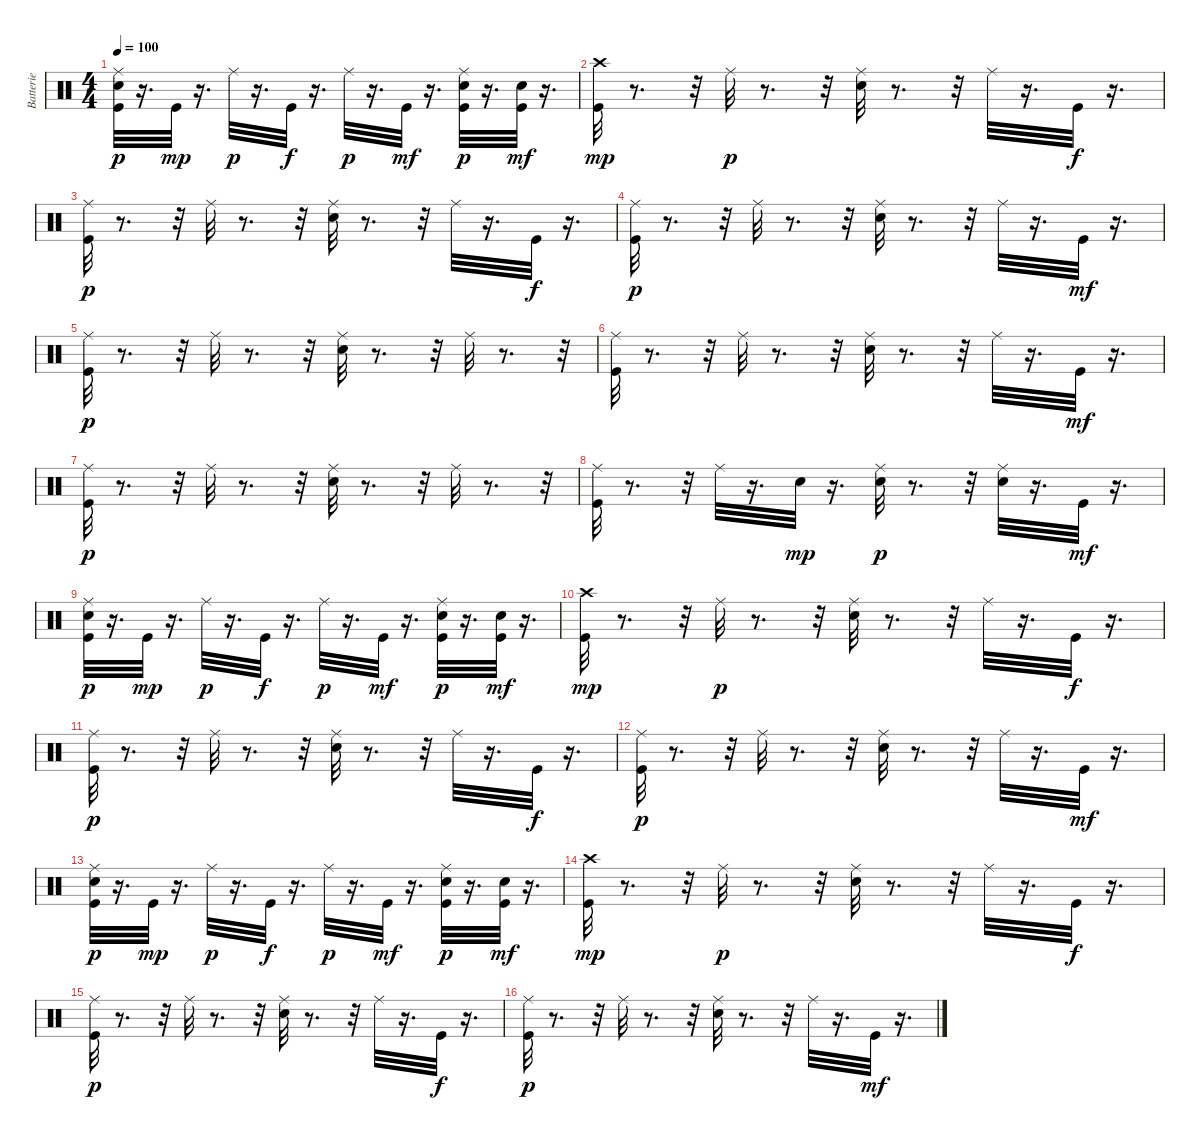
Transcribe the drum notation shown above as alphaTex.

\track ("Batterie" "Batterie") {instrument percussion}
\staff {score}
\articulation defaults
\ts (4 4)
\tempo 100
\clef neutral
\ks c
("Kick (hit)" "Snare (hit) 2" "Ride (middle)").32{dy p} r.16{d} "Kick (hit)".32{dy mp} r.16{d} "Ride (middle)".32{dy p} r.16{d} "Kick (hit)".32{dy f} r.16{d} "Ride (middle)".32{dy p} r.16{d} "Kick (hit)".32{dy mf} r.16{d} ("Kick (hit)" "Snare (hit) 2" "Ride (middle)").32{dy p} r.16{d} ("Kick (hit)" "Snare (hit) 2").32{dy mf} r.16{d} |
("Kick (hit)" "Crash high (hit)").32{dy mp} r.8{d} r.32 "Ride (middle)".32{dy p} r.8{d} r.32 ("Snare (hit) 2" "Ride (middle)").32 r.8{d} r.32 "Ride (middle)".32 r.16{d} "Kick (hit)".32{dy f} r.16{d} |
("Kick (hit)" "Ride (middle)").32{dy p} r.8{d} r.32 "Ride (middle)".32 r.8{d} r.32 ("Snare (hit) 2" "Ride (middle)").32 r.8{d} r.32 "Ride (middle)".32 r.16{d} "Kick (hit)".32{dy f} r.16{d} |
("Kick (hit)" "Ride (middle)").32{dy p} r.8{d} r.32 "Ride (middle)".32 r.8{d} r.32 ("Snare (hit) 2" "Ride (middle)").32 r.8{d} r.32 "Ride (middle)".32 r.16{d} "Kick (hit)".32{dy mf} r.16{d} |
("Kick (hit)" "Ride (middle)").32{dy p} r.8{d} r.32 "Ride (middle)".32 r.8{d} r.32 ("Snare (hit) 2" "Ride (middle)").32 r.8{d} r.32 "Ride (middle)".32 r.8{d} r.32 |
("Kick (hit)" "Ride (middle)").32 r.8{d} r.32 "Ride (middle)".32 r.8{d} r.32 ("Snare (hit) 2" "Ride (middle)").32 r.8{d} r.32 "Ride (middle)".32 r.16{d} "Kick (hit)".32{dy mf} r.16{d} |
("Kick (hit)" "Ride (middle)").32{dy p} r.8{d} r.32 "Ride (middle)".32 r.8{d} r.32 ("Snare (hit) 2" "Ride (middle)").32 r.8{d} r.32 "Ride (middle)".32 r.8{d} r.32 |
("Kick (hit)" "Ride (middle)").32 r.8{d} r.32 "Ride (middle)".32 r.16{d} "Snare (hit) 2".32{dy mp} r.16{d} ("Snare (hit) 2" "Ride (middle)").32{dy p} r.8{d} r.32 ("Snare (hit) 2" "Ride (middle)").32 r.16{d} "Kick (hit)".32{dy mf} r.16{d} |
("Kick (hit)" "Snare (hit) 2" "Ride (middle)").32{dy p} r.16{d} "Kick (hit)".32{dy mp} r.16{d} "Ride (middle)".32{dy p} r.16{d} "Kick (hit)".32{dy f} r.16{d} "Ride (middle)".32{dy p} r.16{d} "Kick (hit)".32{dy mf} r.16{d} ("Kick (hit)" "Snare (hit) 2" "Ride (middle)").32{dy p} r.16{d} ("Kick (hit)" "Snare (hit) 2").32{dy mf} r.16{d} |
("Kick (hit)" "Crash high (hit)").32{dy mp} r.8{d} r.32 "Ride (middle)".32{dy p} r.8{d} r.32 ("Snare (hit) 2" "Ride (middle)").32 r.8{d} r.32 "Ride (middle)".32 r.16{d} "Kick (hit)".32{dy f} r.16{d} |
("Kick (hit)" "Ride (middle)").32{dy p} r.8{d} r.32 "Ride (middle)".32 r.8{d} r.32 ("Snare (hit) 2" "Ride (middle)").32 r.8{d} r.32 "Ride (middle)".32 r.16{d} "Kick (hit)".32{dy f} r.16{d} |
("Kick (hit)" "Ride (middle)").32{dy p} r.8{d} r.32 "Ride (middle)".32 r.8{d} r.32 ("Snare (hit) 2" "Ride (middle)").32 r.8{d} r.32 "Ride (middle)".32 r.16{d} "Kick (hit)".32{dy mf} r.16{d} |
("Kick (hit)" "Snare (hit) 2" "Ride (middle)").32{dy p} r.16{d} "Kick (hit)".32{dy mp} r.16{d} "Ride (middle)".32{dy p} r.16{d} "Kick (hit)".32{dy f} r.16{d} "Ride (middle)".32{dy p} r.16{d} "Kick (hit)".32{dy mf} r.16{d} ("Kick (hit)" "Snare (hit) 2" "Ride (middle)").32{dy p} r.16{d} ("Kick (hit)" "Snare (hit) 2").32{dy mf} r.16{d} |
("Kick (hit)" "Crash high (hit)").32{dy mp} r.8{d} r.32 "Ride (middle)".32{dy p} r.8{d} r.32 ("Snare (hit) 2" "Ride (middle)").32 r.8{d} r.32 "Ride (middle)".32 r.16{d} "Kick (hit)".32{dy f} r.16{d} |
("Kick (hit)" "Ride (middle)").32{dy p} r.8{d} r.32 "Ride (middle)".32 r.8{d} r.32 ("Snare (hit) 2" "Ride (middle)").32 r.8{d} r.32 "Ride (middle)".32 r.16{d} "Kick (hit)".32{dy f} r.16{d} |
("Kick (hit)" "Ride (middle)").32{dy p} r.8{d} r.32 "Ride (middle)".32 r.8{d} r.32 ("Snare (hit) 2" "Ride (middle)").32 r.8{d} r.32 "Ride (middle)".32 r.16{d} "Kick (hit)".32{dy mf} r.16{d}
